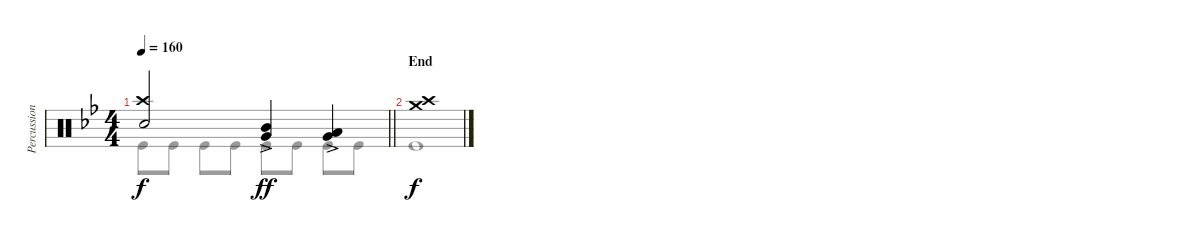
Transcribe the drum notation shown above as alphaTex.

\track ("Percussion" "Percussion") {instrument percussion}
\staff {score}
\articulation defaults
\voice
\ts (4 4)
\tempo 160
\clef neutral
\barLineRight lightlight
\ks gminor
("Crash high (hit)" "Electric Snare (hit)").2{dy f} ("Mid Tom (hit)"{ac} "Very Low Tom (hit)"{ac}).4{dy ff} ("Low Tom (hit)"{ac} "Very Low Tom (hit)"{ac}).4 |
\section ("" "End")
("Crash medium (hit)" "Crash high (hit)").1{dy f} |
|
|
|
|
|
|
\voice
\clef neutral
\ottava regular
\simile none
\barLineRight lightlight
\ks gminor "Kick (hit)".8{dy f} "Kick (hit)".8 "Kick (hit)".8 "Kick (hit)".8 "Kick (hit)".8 "Kick (hit)".8 "Kick (hit)".8 "Kick (hit)".8
|
"Kick (hit)".1 |
|
|
|
|
|
|
